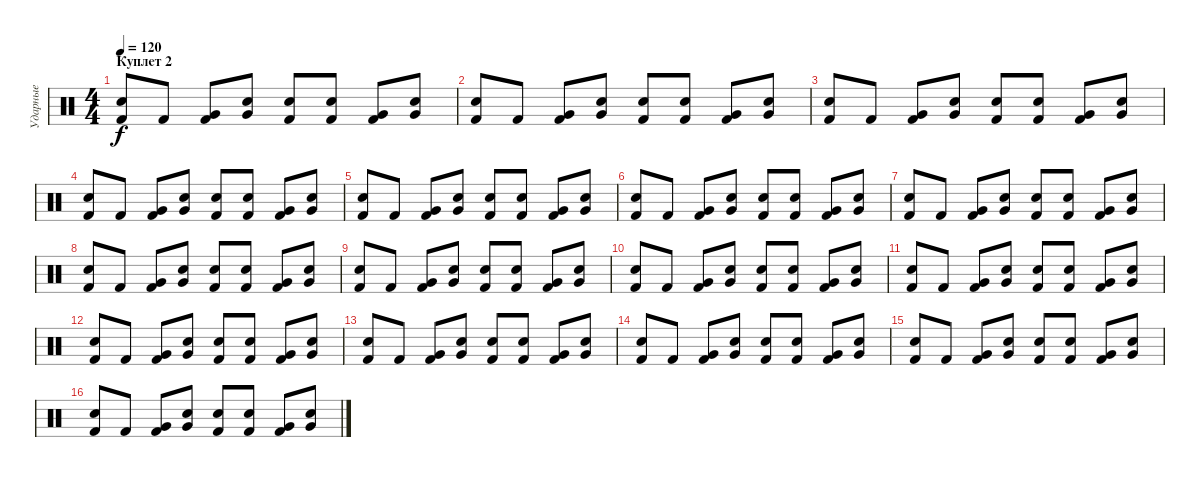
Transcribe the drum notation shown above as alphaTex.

\track ("Ударные" "Ударные") {instrument percussion}
\staff {score}
\articulation defaults
\ts (4 4)
\section ("" "Куплет 2")
\tempo 120
\clef neutral
\ks c
("Snare (hit) 2" "Kick (hit) 2").8{dy f} "Kick (hit) 2".8 ("Very Low Tom (hit)" "Kick (hit) 2").8 ("Very Low Tom (hit)" "Snare (hit) 2").8 ("Snare (hit) 2" "Kick (hit) 2").8 ("Snare (hit) 2" "Kick (hit) 2").8 ("Very Low Tom (hit)" "Kick (hit) 2").8 ("Very Low Tom (hit)" "Snare (hit) 2").8 |
("Snare (hit) 2" "Kick (hit) 2").8 "Kick (hit) 2".8 ("Very Low Tom (hit)" "Kick (hit) 2").8 ("Very Low Tom (hit)" "Snare (hit) 2").8 ("Snare (hit) 2" "Kick (hit) 2").8 ("Snare (hit) 2" "Kick (hit) 2").8 ("Very Low Tom (hit)" "Kick (hit) 2").8 ("Very Low Tom (hit)" "Snare (hit) 2").8 |
("Snare (hit) 2" "Kick (hit) 2").8 "Kick (hit) 2".8 ("Very Low Tom (hit)" "Kick (hit) 2").8 ("Very Low Tom (hit)" "Snare (hit) 2").8 ("Snare (hit) 2" "Kick (hit) 2").8 ("Snare (hit) 2" "Kick (hit) 2").8 ("Very Low Tom (hit)" "Kick (hit) 2").8 ("Very Low Tom (hit)" "Snare (hit) 2").8 |
("Snare (hit) 2" "Kick (hit) 2").8 "Kick (hit) 2".8 ("Very Low Tom (hit)" "Kick (hit) 2").8 ("Very Low Tom (hit)" "Snare (hit) 2").8 ("Snare (hit) 2" "Kick (hit) 2").8 ("Snare (hit) 2" "Kick (hit) 2").8 ("Very Low Tom (hit)" "Kick (hit) 2").8 ("Very Low Tom (hit)" "Snare (hit) 2").8 |
("Snare (hit) 2" "Kick (hit) 2").8 "Kick (hit) 2".8 ("Very Low Tom (hit)" "Kick (hit) 2").8 ("Very Low Tom (hit)" "Snare (hit) 2").8 ("Snare (hit) 2" "Kick (hit) 2").8 ("Snare (hit) 2" "Kick (hit) 2").8 ("Very Low Tom (hit)" "Kick (hit) 2").8 ("Very Low Tom (hit)" "Snare (hit) 2").8 |
("Snare (hit) 2" "Kick (hit) 2").8 "Kick (hit) 2".8 ("Very Low Tom (hit)" "Kick (hit) 2").8 ("Very Low Tom (hit)" "Snare (hit) 2").8 ("Snare (hit) 2" "Kick (hit) 2").8 ("Snare (hit) 2" "Kick (hit) 2").8 ("Very Low Tom (hit)" "Kick (hit) 2").8 ("Very Low Tom (hit)" "Snare (hit) 2").8 |
("Snare (hit) 2" "Kick (hit) 2").8 "Kick (hit) 2".8 ("Very Low Tom (hit)" "Kick (hit) 2").8 ("Very Low Tom (hit)" "Snare (hit) 2").8 ("Snare (hit) 2" "Kick (hit) 2").8 ("Snare (hit) 2" "Kick (hit) 2").8 ("Very Low Tom (hit)" "Kick (hit) 2").8 ("Very Low Tom (hit)" "Snare (hit) 2").8 |
("Snare (hit) 2" "Kick (hit) 2").8 "Kick (hit) 2".8 ("Very Low Tom (hit)" "Kick (hit) 2").8 ("Very Low Tom (hit)" "Snare (hit) 2").8 ("Snare (hit) 2" "Kick (hit) 2").8 ("Snare (hit) 2" "Kick (hit) 2").8 ("Very Low Tom (hit)" "Kick (hit) 2").8 ("Very Low Tom (hit)" "Snare (hit) 2").8 |
("Snare (hit) 2" "Kick (hit) 2").8 "Kick (hit) 2".8 ("Very Low Tom (hit)" "Kick (hit) 2").8 ("Very Low Tom (hit)" "Snare (hit) 2").8 ("Snare (hit) 2" "Kick (hit) 2").8 ("Snare (hit) 2" "Kick (hit) 2").8 ("Very Low Tom (hit)" "Kick (hit) 2").8 ("Very Low Tom (hit)" "Snare (hit) 2").8 |
("Snare (hit) 2" "Kick (hit) 2").8 "Kick (hit) 2".8 ("Very Low Tom (hit)" "Kick (hit) 2").8 ("Very Low Tom (hit)" "Snare (hit) 2").8 ("Snare (hit) 2" "Kick (hit) 2").8 ("Snare (hit) 2" "Kick (hit) 2").8 ("Very Low Tom (hit)" "Kick (hit) 2").8 ("Very Low Tom (hit)" "Snare (hit) 2").8 |
("Snare (hit) 2" "Kick (hit) 2").8 "Kick (hit) 2".8 ("Very Low Tom (hit)" "Kick (hit) 2").8 ("Very Low Tom (hit)" "Snare (hit) 2").8 ("Snare (hit) 2" "Kick (hit) 2").8 ("Snare (hit) 2" "Kick (hit) 2").8 ("Very Low Tom (hit)" "Kick (hit) 2").8 ("Very Low Tom (hit)" "Snare (hit) 2").8 |
("Snare (hit) 2" "Kick (hit) 2").8 "Kick (hit) 2".8 ("Very Low Tom (hit)" "Kick (hit) 2").8 ("Very Low Tom (hit)" "Snare (hit) 2").8 ("Snare (hit) 2" "Kick (hit) 2").8 ("Snare (hit) 2" "Kick (hit) 2").8 ("Very Low Tom (hit)" "Kick (hit) 2").8 ("Very Low Tom (hit)" "Snare (hit) 2").8 |
("Snare (hit) 2" "Kick (hit) 2").8 "Kick (hit) 2".8 ("Very Low Tom (hit)" "Kick (hit) 2").8 ("Very Low Tom (hit)" "Snare (hit) 2").8 ("Snare (hit) 2" "Kick (hit) 2").8 ("Snare (hit) 2" "Kick (hit) 2").8 ("Very Low Tom (hit)" "Kick (hit) 2").8 ("Very Low Tom (hit)" "Snare (hit) 2").8 |
("Snare (hit) 2" "Kick (hit) 2").8 "Kick (hit) 2".8 ("Very Low Tom (hit)" "Kick (hit) 2").8 ("Very Low Tom (hit)" "Snare (hit) 2").8 ("Snare (hit) 2" "Kick (hit) 2").8 ("Snare (hit) 2" "Kick (hit) 2").8 ("Very Low Tom (hit)" "Kick (hit) 2").8 ("Very Low Tom (hit)" "Snare (hit) 2").8 |
("Snare (hit) 2" "Kick (hit) 2").8 "Kick (hit) 2".8 ("Very Low Tom (hit)" "Kick (hit) 2").8 ("Very Low Tom (hit)" "Snare (hit) 2").8 ("Snare (hit) 2" "Kick (hit) 2").8 ("Snare (hit) 2" "Kick (hit) 2").8 ("Very Low Tom (hit)" "Kick (hit) 2").8 ("Very Low Tom (hit)" "Snare (hit) 2").8 |
("Snare (hit) 2" "Kick (hit) 2").8 "Kick (hit) 2".8 ("Very Low Tom (hit)" "Kick (hit) 2").8 ("Very Low Tom (hit)" "Snare (hit) 2").8 ("Snare (hit) 2" "Kick (hit) 2").8 ("Snare (hit) 2" "Kick (hit) 2").8 ("Very Low Tom (hit)" "Kick (hit) 2").8 ("Very Low Tom (hit)" "Snare (hit) 2").8
